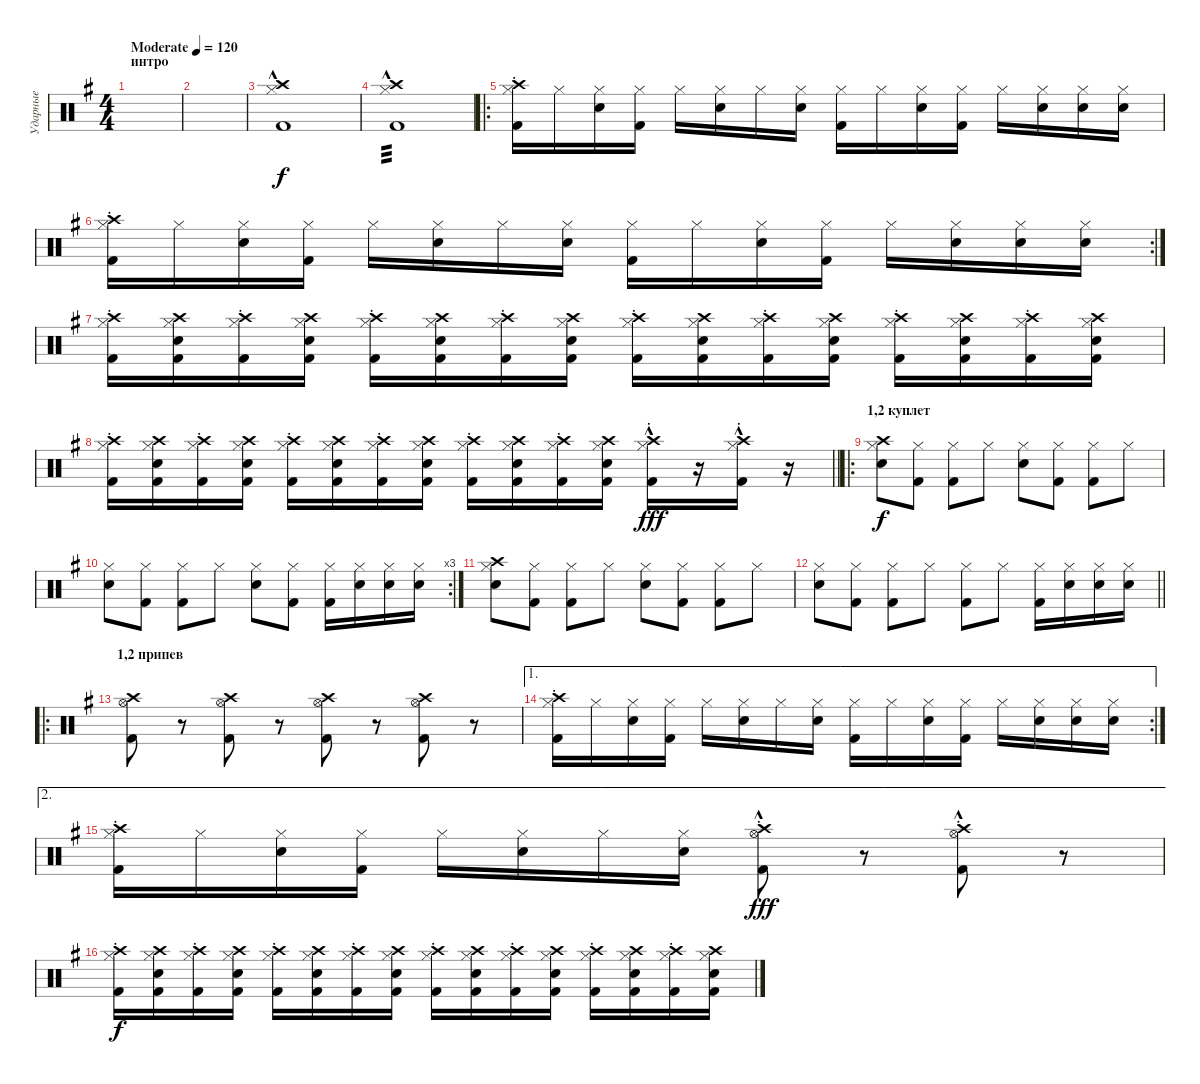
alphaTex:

\track ("Ударные" "Ударные") {instrument percussion}
\staff {score}
\articulation defaults
\ts (4 4)
\section ("" "интро")
\tempo (120 "Moderate")
\clef neutral
\ks eminor
|
|
("Crash high (hit)" "Hi-Hat (closed)" "Kick (hit) 2"{hac}).1 |
("Crash high (hit)" "Hi-Hat (closed)" "Kick (hit) 2"{hac}).1{tp 3} |
\ro
("Hi-Hat (closed)" "Crash high (hit)" "Kick (hit) 2"{st}).16{dy f} "Hi-Hat (closed)".16 ("Hi-Hat (closed)" "Snare (hit) 2").16 ("Hi-Hat (closed)" "Kick (hit) 2").16 "Hi-Hat (closed)".16 ("Hi-Hat (closed)" "Snare (hit) 2").16 "Hi-Hat (closed)".16 ("Hi-Hat (closed)" "Snare (hit) 2").16 ("Hi-Hat (closed)" "Kick (hit) 2").16 "Hi-Hat (closed)".16 ("Hi-Hat (closed)" "Snare (hit) 2").16 ("Hi-Hat (closed)" "Kick (hit) 2").16 "Hi-Hat (closed)".16 ("Hi-Hat (closed)" "Snare (hit) 2").16 ("Hi-Hat (closed)" "Snare (hit) 2").16 ("Hi-Hat (closed)" "Snare (hit) 2").16 |
\rc 2
("Hi-Hat (closed)" "Crash high (hit)" "Kick (hit) 2"{st}).16 "Hi-Hat (closed)".16 ("Hi-Hat (closed)" "Snare (hit) 2").16 ("Hi-Hat (closed)" "Kick (hit) 2").16 "Hi-Hat (closed)".16 ("Hi-Hat (closed)" "Snare (hit) 2").16 "Hi-Hat (closed)".16 ("Hi-Hat (closed)" "Snare (hit) 2").16 ("Hi-Hat (closed)" "Kick (hit) 2").16 "Hi-Hat (closed)".16 ("Hi-Hat (closed)" "Snare (hit) 2").16 ("Hi-Hat (closed)" "Kick (hit) 2").16 "Hi-Hat (closed)".16 ("Hi-Hat (closed)" "Snare (hit) 2").16 ("Hi-Hat (closed)" "Snare (hit) 2").16 ("Hi-Hat (closed)" "Snare (hit) 2").16 |
("Hi-Hat (closed)" "Crash high (hit)" "Kick (hit) 2"{st}).16 ("Hi-Hat (closed)" "Crash high (hit)" "Snare (hit) 2" "Kick (hit) 2").16 ("Hi-Hat (closed)" "Crash high (hit)" "Kick (hit) 2"{st}).16 ("Hi-Hat (closed)" "Crash high (hit)" "Snare (hit) 2" "Kick (hit) 2").16 ("Hi-Hat (closed)" "Crash high (hit)" "Kick (hit) 2"{st}).16 ("Hi-Hat (closed)" "Crash high (hit)" "Snare (hit) 2" "Kick (hit) 2").16 ("Hi-Hat (closed)" "Crash high (hit)" "Kick (hit) 2"{st}).16 ("Hi-Hat (closed)" "Crash high (hit)" "Snare (hit) 2" "Kick (hit) 2").16 ("Hi-Hat (closed)" "Crash high (hit)" "Kick (hit) 2"{st}).16 ("Hi-Hat (closed)" "Crash high (hit)" "Snare (hit) 2" "Kick (hit) 2").16 ("Hi-Hat (closed)" "Crash high (hit)" "Kick (hit) 2"{st}).16 ("Hi-Hat (closed)" "Crash high (hit)" "Snare (hit) 2" "Kick (hit) 2").16 ("Hi-Hat (closed)" "Crash high (hit)" "Kick (hit) 2"{st}).16 ("Hi-Hat (closed)" "Crash high (hit)" "Snare (hit) 2" "Kick (hit) 2").16 ("Hi-Hat (closed)" "Crash high (hit)" "Kick (hit) 2"{st}).16 ("Hi-Hat (closed)" "Crash high (hit)" "Snare (hit) 2" "Kick (hit) 2").16 |
\barLineRight lightlight
("Hi-Hat (closed)" "Crash high (hit)" "Kick (hit) 2"{st}).16 ("Hi-Hat (closed)" "Crash high (hit)" "Snare (hit) 2" "Kick (hit) 2").16 ("Hi-Hat (closed)" "Crash high (hit)" "Kick (hit) 2"{st}).16 ("Hi-Hat (closed)" "Crash high (hit)" "Snare (hit) 2" "Kick (hit) 2").16 ("Hi-Hat (closed)" "Crash high (hit)" "Kick (hit) 2"{st}).16 ("Hi-Hat (closed)" "Crash high (hit)" "Snare (hit) 2" "Kick (hit) 2").16 ("Hi-Hat (closed)" "Crash high (hit)" "Kick (hit) 2"{st}).16 ("Hi-Hat (closed)" "Crash high (hit)" "Snare (hit) 2" "Kick (hit) 2").16 ("Hi-Hat (closed)" "Crash high (hit)" "Kick (hit) 2"{st}).16 ("Hi-Hat (closed)" "Crash high (hit)" "Snare (hit) 2" "Kick (hit) 2").16 ("Hi-Hat (closed)" "Crash high (hit)" "Kick (hit) 2"{st}).16 ("Hi-Hat (closed)" "Crash high (hit)" "Snare (hit) 2" "Kick (hit) 2").16 ("Hi-Hat (closed)" "Crash high (hit)"{hac} "Kick (hit) 2"{hac st}).16{dy fff} r.16 ("Hi-Hat (closed)" "Crash high (hit)"{hac} "Kick (hit) 2"{hac st}).16 r.16 |
\ro
\section ("" "1,2 куплет")
("Hi-Hat (closed)" "Crash high (hit)" "Snare (hit) 2").8{dy f} ("Hi-Hat (closed)" "Kick (hit) 2").8 ("Hi-Hat (closed)" "Kick (hit) 2").8 "Hi-Hat (closed)".8 ("Hi-Hat (closed)" "Snare (hit) 2").8 ("Hi-Hat (closed)" "Kick (hit) 2").8 ("Hi-Hat (closed)" "Kick (hit) 2").8 "Hi-Hat (closed)".8 |
\rc 3
("Hi-Hat (closed)" "Snare (hit) 2").8 ("Hi-Hat (closed)" "Kick (hit) 2").8 ("Hi-Hat (closed)" "Kick (hit) 2").8 "Hi-Hat (closed)".8 ("Hi-Hat (closed)" "Snare (hit) 2").8 ("Hi-Hat (closed)" "Kick (hit) 2").8 ("Hi-Hat (closed)" "Kick (hit) 2").16 ("Hi-Hat (closed)" "Snare (hit) 2").16 ("Hi-Hat (closed)" "Snare (hit) 2").16 ("Hi-Hat (closed)" "Snare (hit) 2").16 |
("Hi-Hat (closed)" "Crash high (hit)" "Snare (hit) 2").8 ("Hi-Hat (closed)" "Kick (hit) 2").8 ("Hi-Hat (closed)" "Kick (hit) 2").8 "Hi-Hat (closed)".8 ("Hi-Hat (closed)" "Snare (hit) 2").8 ("Hi-Hat (closed)" "Kick (hit) 2").8 ("Hi-Hat (closed)" "Kick (hit) 2").8 "Hi-Hat (closed)".8 |
\barLineRight lightlight
("Hi-Hat (closed)" "Snare (hit) 2").8 ("Hi-Hat (closed)" "Kick (hit) 2").8 ("Hi-Hat (closed)" "Kick (hit) 2").8 "Hi-Hat (closed)".8 ("Hi-Hat (closed)" "Kick (hit) 2").8 "Hi-Hat (closed)".8 ("Hi-Hat (closed)" "Kick (hit) 2").16 ("Hi-Hat (closed)" "Snare (hit) 2").16 ("Hi-Hat (closed)" "Snare (hit) 2").16 ("Hi-Hat (closed)" "Snare (hit) 2").16 |
\ro
\section ("" "1,2 припев")
("Crash high (hit)" "Hi-Hat (open)" "Kick (hit) 2").8 r.8 ("Crash high (hit)" "Hi-Hat (open)" "Kick (hit) 2").8 r.8 ("Crash high (hit)" "Hi-Hat (open)" "Kick (hit) 2").8 r.8 ("Crash high (hit)" "Hi-Hat (open)" "Kick (hit) 2").8 r.8 |
\ae 1
\rc 2
("Hi-Hat (closed)" "Crash high (hit)" "Kick (hit) 2"{st}).16 "Hi-Hat (closed)".16 ("Hi-Hat (closed)" "Snare (hit) 2").16 ("Hi-Hat (closed)" "Kick (hit) 2").16 "Hi-Hat (closed)".16 ("Hi-Hat (closed)" "Snare (hit) 2").16 "Hi-Hat (closed)".16 ("Hi-Hat (closed)" "Snare (hit) 2").16 ("Hi-Hat (closed)" "Kick (hit) 2").16 "Hi-Hat (closed)".16 ("Hi-Hat (closed)" "Snare (hit) 2").16 ("Hi-Hat (closed)" "Kick (hit) 2").16 "Hi-Hat (closed)".16 ("Hi-Hat (closed)" "Snare (hit) 2").16 ("Hi-Hat (closed)" "Snare (hit) 2").16 ("Hi-Hat (closed)" "Snare (hit) 2").16 |
\ae 2
("Hi-Hat (closed)" "Crash high (hit)" "Kick (hit) 2"{st}).16 "Hi-Hat (closed)".16 ("Hi-Hat (closed)" "Snare (hit) 2").16 ("Hi-Hat (closed)" "Kick (hit) 2").16 "Hi-Hat (closed)".16 ("Hi-Hat (closed)" "Snare (hit) 2").16 "Hi-Hat (closed)".16 ("Hi-Hat (closed)" "Snare (hit) 2").16 ("Crash high (hit)" "Hi-Hat (open)" "Kick (hit) 2"{hac st}).8{dy fff} r.8 ("Crash high (hit)" "Hi-Hat (open)" "Kick (hit) 2"{hac st}).8 r.8 |
("Hi-Hat (closed)" "Crash high (hit)" "Kick (hit) 2"{st}).16{dy f} ("Hi-Hat (closed)" "Crash high (hit)" "Snare (hit) 2" "Kick (hit) 2").16 ("Hi-Hat (closed)" "Crash high (hit)" "Kick (hit) 2"{st}).16 ("Hi-Hat (closed)" "Crash high (hit)" "Snare (hit) 2" "Kick (hit) 2").16 ("Hi-Hat (closed)" "Crash high (hit)" "Kick (hit) 2"{st}).16 ("Hi-Hat (closed)" "Crash high (hit)" "Snare (hit) 2" "Kick (hit) 2").16 ("Hi-Hat (closed)" "Crash high (hit)" "Kick (hit) 2"{st}).16 ("Hi-Hat (closed)" "Crash high (hit)" "Snare (hit) 2" "Kick (hit) 2").16 ("Hi-Hat (closed)" "Crash high (hit)" "Kick (hit) 2"{st}).16 ("Hi-Hat (closed)" "Crash high (hit)" "Snare (hit) 2" "Kick (hit) 2").16 ("Hi-Hat (closed)" "Crash high (hit)" "Kick (hit) 2"{st}).16 ("Hi-Hat (closed)" "Crash high (hit)" "Snare (hit) 2" "Kick (hit) 2").16 ("Hi-Hat (closed)" "Crash high (hit)" "Kick (hit) 2"{st}).16 ("Hi-Hat (closed)" "Crash high (hit)" "Snare (hit) 2" "Kick (hit) 2").16 ("Hi-Hat (closed)" "Crash high (hit)" "Kick (hit) 2"{st}).16 ("Hi-Hat (closed)" "Crash high (hit)" "Snare (hit) 2" "Kick (hit) 2").16
